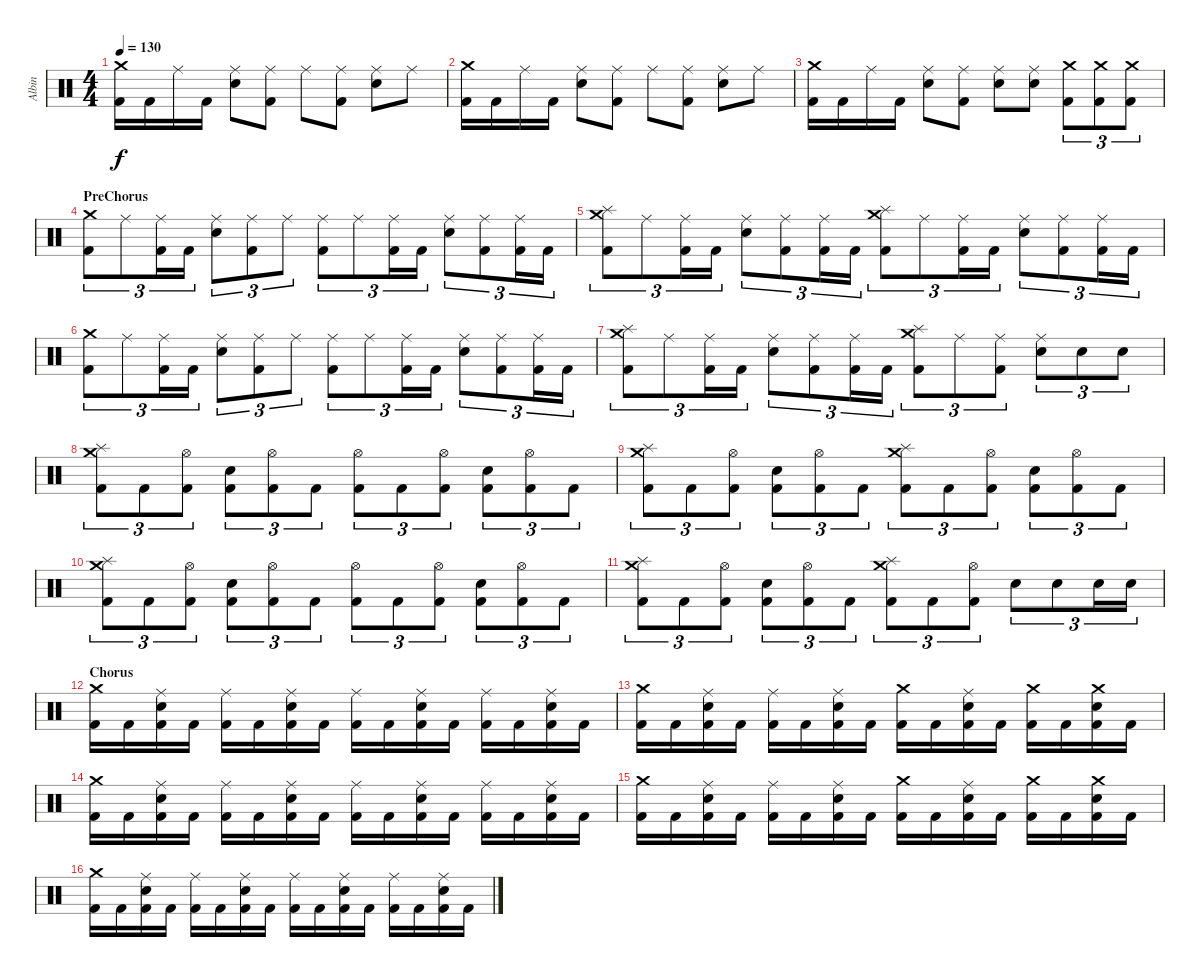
\track ("Albin" "Albin") {instrument percussion}
\staff {score}
\articulation defaults
\ts (4 4)
\tempo 130
\clef neutral
\ks c
("Crash medium (hit)" "Kick (hit) 2").16{dy f} "Kick (hit) 2".16 "Ride (middle)".16 "Kick (hit) 2".16 ("Ride (middle)" "Electric Snare (hit)").8 ("Ride (middle)" "Kick (hit) 2").8 "Ride (middle)".8 ("Ride (middle)" "Kick (hit) 2").8 ("Ride (middle)" "Electric Snare (hit)").8 "Ride (middle)".8 |
("Crash medium (hit)" "Kick (hit) 2").16 "Kick (hit) 2".16 "Ride (middle)".16 "Kick (hit) 2".16 ("Ride (middle)" "Electric Snare (hit)").8 ("Ride (middle)" "Kick (hit) 2").8 "Ride (middle)".8 ("Ride (middle)" "Kick (hit) 2").8 ("Ride (middle)" "Electric Snare (hit)").8 "Ride (middle)".8 |
("Crash medium (hit)" "Kick (hit) 2").16 "Kick (hit) 2".16 "Ride (middle)".16 "Kick (hit) 2".16 ("Ride (middle)" "Electric Snare (hit)").8 ("Ride (middle)" "Kick (hit) 2").8 ("Ride (middle)" "Electric Snare (hit)").8 ("Ride (middle)" "Electric Snare (hit)").8 ("Crash medium (hit)" "Kick (hit) 2").8{tu (3 2)} ("Crash medium (hit)" "Kick (hit) 2").8{tu (3 2)} ("Crash medium (hit)" "Kick (hit) 2").8{tu (3 2)} |
\section ("" "PreChorus")
("Crash medium (hit)" "Kick (hit) 2").8{tu (3 2)} "Ride (middle)".8{tu (3 2)} ("Ride (middle)" "Kick (hit) 2").16{tu (3 2)} "Kick (hit) 2".16{tu (3 2)} ("Ride (middle)" "Electric Snare (hit)").8{tu (3 2)} ("Ride (middle)" "Kick (hit) 2").8{tu (3 2)} "Ride (middle)".8{tu (3 2)} ("Ride (middle)" "Kick (hit) 2").8{tu (3 2)} "Ride (middle)".8{tu (3 2)} ("Ride (middle)" "Kick (hit) 2").16{tu (3 2)} "Kick (hit) 2".16{tu (3 2)} ("Ride (middle)" "Electric Snare (hit)").8{tu (3 2)} ("Ride (middle)" "Kick (hit) 2").8{tu (3 2)} ("Ride (middle)" "Kick (hit) 2").16{tu (3 2)} "Kick (hit) 2".16{tu (3 2)} |
("Crash medium (hit)" "Splash (hit)" "Kick (hit) 2").8{tu (3 2)} "Ride (middle)".8{tu (3 2)} ("Ride (middle)" "Kick (hit) 2").16{tu (3 2)} "Kick (hit) 2".16{tu (3 2)} ("Ride (middle)" "Electric Snare (hit)").8{tu (3 2)} ("Ride (middle)" "Kick (hit) 2").8{tu (3 2)} ("Ride (middle)" "Kick (hit) 2").16{tu (3 2)} "Kick (hit) 2".16{tu (3 2)} ("Crash medium (hit)" "Splash (hit)" "Kick (hit) 2").8{tu (3 2)} "Ride (middle)".8{tu (3 2)} ("Ride (middle)" "Kick (hit) 2").16{tu (3 2)} "Kick (hit) 2".16{tu (3 2)} ("Ride (middle)" "Electric Snare (hit)").8{tu (3 2)} ("Ride (middle)" "Kick (hit) 2").8{tu (3 2)} ("Ride (middle)" "Kick (hit) 2").16{tu (3 2)} "Kick (hit) 2".16{tu (3 2)} |
("Crash medium (hit)" "Kick (hit) 2").8{tu (3 2)} "Ride (middle)".8{tu (3 2)} ("Ride (middle)" "Kick (hit) 2").16{tu (3 2)} "Kick (hit) 2".16{tu (3 2)} ("Ride (middle)" "Electric Snare (hit)").8{tu (3 2)} ("Ride (middle)" "Kick (hit) 2").8{tu (3 2)} "Ride (middle)".8{tu (3 2)} ("Ride (middle)" "Kick (hit) 2").8{tu (3 2)} "Ride (middle)".8{tu (3 2)} ("Ride (middle)" "Kick (hit) 2").16{tu (3 2)} "Kick (hit) 2".16{tu (3 2)} ("Ride (middle)" "Electric Snare (hit)").8{tu (3 2)} ("Ride (middle)" "Kick (hit) 2").8{tu (3 2)} ("Ride (middle)" "Kick (hit) 2").16{tu (3 2)} "Kick (hit) 2".16{tu (3 2)} |
("Crash medium (hit)" "Splash (hit)" "Kick (hit) 2").8{tu (3 2)} "Ride (middle)".8{tu (3 2)} ("Ride (middle)" "Kick (hit) 2").16{tu (3 2)} "Kick (hit) 2".16{tu (3 2)} ("Ride (middle)" "Electric Snare (hit)").8{tu (3 2)} ("Ride (middle)" "Kick (hit) 2").8{tu (3 2)} ("Ride (middle)" "Kick (hit) 2").16{tu (3 2)} "Kick (hit) 2".16{tu (3 2)} ("Crash medium (hit)" "Splash (hit)" "Kick (hit) 2").8{tu (3 2)} "Ride (middle)".8{tu (3 2)} ("Ride (middle)" "Kick (hit) 2").8{tu (3 2)} ("Ride (middle)" "Electric Snare (hit)").8{tu (3 2)} "Electric Snare (hit)".8{tu (3 2)} "Electric Snare (hit)".8{tu (3 2)} |
("Crash medium (hit)" "Splash (hit)" "Kick (hit) 2").8{tu (3 2)} "Kick (hit) 2".8{tu (3 2)} ("Hi-Hat (open)" "Kick (hit) 2").8{tu (3 2)} ("Electric Snare (hit)" "Kick (hit) 2").8{tu (3 2)} ("Hi-Hat (open)" "Kick (hit) 2").8{tu (3 2)} "Kick (hit) 2".8{tu (3 2)} ("Hi-Hat (open)" "Kick (hit) 2").8{tu (3 2)} "Kick (hit) 2".8{tu (3 2)} ("Hi-Hat (open)" "Kick (hit) 2").8{tu (3 2)} ("Electric Snare (hit)" "Kick (hit) 2").8{tu (3 2)} ("Hi-Hat (open)" "Kick (hit) 2").8{tu (3 2)} "Kick (hit) 2".8{tu (3 2)} |
("Crash medium (hit)" "Splash (hit)" "Kick (hit) 2").8{tu (3 2)} "Kick (hit) 2".8{tu (3 2)} ("Hi-Hat (open)" "Kick (hit) 2").8{tu (3 2)} ("Electric Snare (hit)" "Kick (hit) 2").8{tu (3 2)} ("Hi-Hat (open)" "Kick (hit) 2").8{tu (3 2)} "Kick (hit) 2".8{tu (3 2)} ("Crash medium (hit)" "Splash (hit)" "Kick (hit) 2").8{tu (3 2)} "Kick (hit) 2".8{tu (3 2)} ("Hi-Hat (open)" "Kick (hit) 2").8{tu (3 2)} ("Electric Snare (hit)" "Kick (hit) 2").8{tu (3 2)} ("Hi-Hat (open)" "Kick (hit) 2").8{tu (3 2)} "Kick (hit) 2".8{tu (3 2)} |
("Crash medium (hit)" "Splash (hit)" "Kick (hit) 2").8{tu (3 2)} "Kick (hit) 2".8{tu (3 2)} ("Hi-Hat (open)" "Kick (hit) 2").8{tu (3 2)} ("Electric Snare (hit)" "Kick (hit) 2").8{tu (3 2)} ("Hi-Hat (open)" "Kick (hit) 2").8{tu (3 2)} "Kick (hit) 2".8{tu (3 2)} ("Hi-Hat (open)" "Kick (hit) 2").8{tu (3 2)} "Kick (hit) 2".8{tu (3 2)} ("Hi-Hat (open)" "Kick (hit) 2").8{tu (3 2)} ("Electric Snare (hit)" "Kick (hit) 2").8{tu (3 2)} ("Hi-Hat (open)" "Kick (hit) 2").8{tu (3 2)} "Kick (hit) 2".8{tu (3 2)} |
("Crash medium (hit)" "Splash (hit)" "Kick (hit) 2").8{tu (3 2)} "Kick (hit) 2".8{tu (3 2)} ("Hi-Hat (open)" "Kick (hit) 2").8{tu (3 2)} ("Electric Snare (hit)" "Kick (hit) 2").8{tu (3 2)} ("Hi-Hat (open)" "Kick (hit) 2").8{tu (3 2)} "Kick (hit) 2".8{tu (3 2)} ("Crash medium (hit)" "Splash (hit)" "Kick (hit) 2").8{tu (3 2)} "Kick (hit) 2".8{tu (3 2)} ("Hi-Hat (open)" "Kick (hit) 2").8{tu (3 2)} "Electric Snare (hit)".8{tu (3 2)} "Electric Snare (hit)".8{tu (3 2)} "Electric Snare (hit)".16{tu (3 2)} "Electric Snare (hit)".16{tu (3 2)} |
\section ("" "Chorus")
("Crash medium (hit)" "Kick (hit) 2").16 "Kick (hit) 2".16 ("Ride (middle)" "Electric Snare (hit)" "Kick (hit) 2").16 "Kick (hit) 2".16 ("Ride (middle)" "Kick (hit) 2").16 "Kick (hit) 2".16 ("Ride (middle)" "Electric Snare (hit)" "Kick (hit) 2").16 "Kick (hit) 2".16 ("Ride (middle)" "Kick (hit) 2").16 "Kick (hit) 2".16 ("Ride (middle)" "Electric Snare (hit)" "Kick (hit) 2").16 "Kick (hit) 2".16 ("Ride (middle)" "Kick (hit) 2").16 "Kick (hit) 2".16 ("Ride (middle)" "Electric Snare (hit)" "Kick (hit) 2").16 "Kick (hit) 2".16 |
("Crash medium (hit)" "Kick (hit) 2").16 "Kick (hit) 2".16 ("Ride (middle)" "Electric Snare (hit)" "Kick (hit) 2").16 "Kick (hit) 2".16 ("Ride (middle)" "Kick (hit) 2").16 "Kick (hit) 2".16 ("Ride (middle)" "Electric Snare (hit)" "Kick (hit) 2").16 "Kick (hit) 2".16 ("Crash medium (hit)" "Kick (hit) 2").16 "Kick (hit) 2".16 ("Ride (middle)" "Electric Snare (hit)" "Kick (hit) 2").16 "Kick (hit) 2".16 ("Crash medium (hit)" "Kick (hit) 2").16 "Kick (hit) 2".16 ("Crash medium (hit)" "Electric Snare (hit)" "Kick (hit) 2").16 "Kick (hit) 2".16 |
("Crash medium (hit)" "Kick (hit) 2").16 "Kick (hit) 2".16 ("Ride (middle)" "Electric Snare (hit)" "Kick (hit) 2").16 "Kick (hit) 2".16 ("Ride (middle)" "Kick (hit) 2").16 "Kick (hit) 2".16 ("Ride (middle)" "Electric Snare (hit)" "Kick (hit) 2").16 "Kick (hit) 2".16 ("Ride (middle)" "Kick (hit) 2").16 "Kick (hit) 2".16 ("Ride (middle)" "Electric Snare (hit)" "Kick (hit) 2").16 "Kick (hit) 2".16 ("Ride (middle)" "Kick (hit) 2").16 "Kick (hit) 2".16 ("Ride (middle)" "Electric Snare (hit)" "Kick (hit) 2").16 "Kick (hit) 2".16 |
("Crash medium (hit)" "Kick (hit) 2").16 "Kick (hit) 2".16 ("Ride (middle)" "Electric Snare (hit)" "Kick (hit) 2").16 "Kick (hit) 2".16 ("Ride (middle)" "Kick (hit) 2").16 "Kick (hit) 2".16 ("Ride (middle)" "Electric Snare (hit)" "Kick (hit) 2").16 "Kick (hit) 2".16 ("Crash medium (hit)" "Kick (hit) 2").16 "Kick (hit) 2".16 ("Ride (middle)" "Electric Snare (hit)" "Kick (hit) 2").16 "Kick (hit) 2".16 ("Crash medium (hit)" "Kick (hit) 2").16 "Kick (hit) 2".16 ("Crash medium (hit)" "Electric Snare (hit)" "Kick (hit) 2").16 "Kick (hit) 2".16 |
("Crash medium (hit)" "Kick (hit) 2").16 "Kick (hit) 2".16 ("Ride (middle)" "Electric Snare (hit)" "Kick (hit) 2").16 "Kick (hit) 2".16 ("Ride (middle)" "Kick (hit) 2").16 "Kick (hit) 2".16 ("Ride (middle)" "Electric Snare (hit)" "Kick (hit) 2").16 "Kick (hit) 2".16 ("Ride (middle)" "Kick (hit) 2").16 "Kick (hit) 2".16 ("Ride (middle)" "Electric Snare (hit)" "Kick (hit) 2").16 "Kick (hit) 2".16 ("Ride (middle)" "Kick (hit) 2").16 "Kick (hit) 2".16 ("Ride (middle)" "Electric Snare (hit)" "Kick (hit) 2").16 "Kick (hit) 2".16
